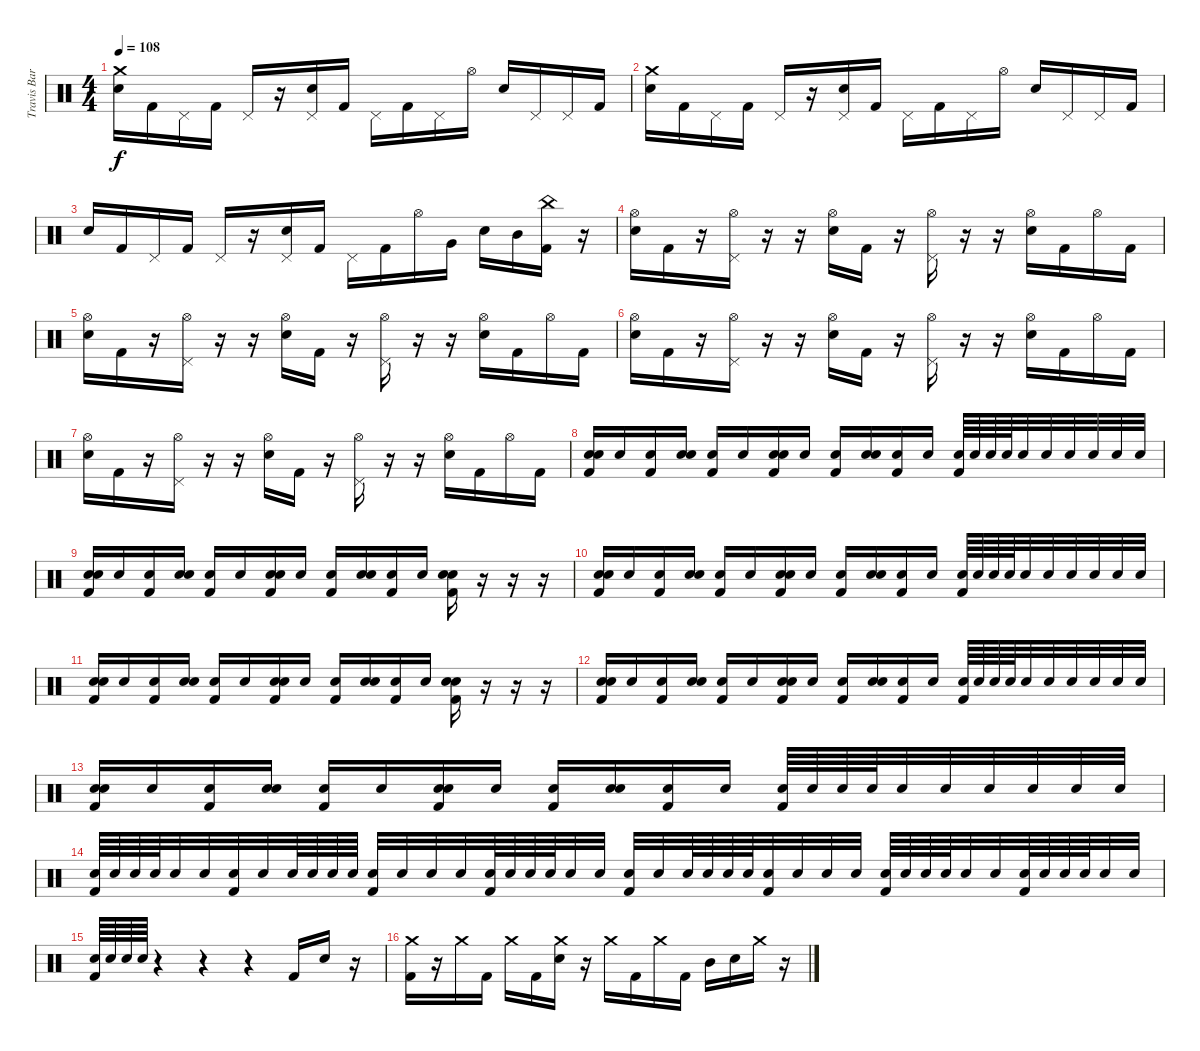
\track ("Travis Barker" "Travis Bar") {instrument percussion}
\staff {score}
\articulation defaults
\ts (4 4)
\tempo 108
\clef neutral
\ks c
("Crash medium (hit)" "Snare (hit) 2").16{dy f} "Kick (hit) 2".16 "Pedal Hi-Hat (hit)".16 "Kick (hit) 2".16 "Pedal Hi-Hat (hit)".16 r.16 ("Pedal Hi-Hat (hit)" "Snare (hit) 2").16 "Kick (hit) 2".16 "Pedal Hi-Hat (hit)".16 "Kick (hit) 2".16 "Pedal Hi-Hat (hit)".16 "Hi-Hat (open)".16 "Snare (hit) 2".16 "Pedal Hi-Hat (hit)".16 "Pedal Hi-Hat (hit)".16 "Kick (hit) 2".16 |
("Crash medium (hit)" "Snare (hit) 2").16 "Kick (hit) 2".16 "Pedal Hi-Hat (hit)".16 "Kick (hit) 2".16 "Pedal Hi-Hat (hit)".16 r.16 ("Pedal Hi-Hat (hit)" "Snare (hit) 2").16 "Kick (hit) 2".16 "Pedal Hi-Hat (hit)".16 "Kick (hit) 2".16 "Pedal Hi-Hat (hit)".16 "Hi-Hat (open)".16 "Snare (hit) 2".16 "Pedal Hi-Hat (hit)".16 "Pedal Hi-Hat (hit)".16 "Kick (hit) 2".16 |
"Snare (hit) 2".16 "Kick (hit) 2".16 "Pedal Hi-Hat (hit)".16 "Kick (hit) 2".16 "Pedal Hi-Hat (hit)".16 r.16 ("Pedal Hi-Hat (hit)" "Snare (hit) 2").16 "Kick (hit) 2".16 "Pedal Hi-Hat (hit)".16 "Kick (hit) 2".16 "Hi-Hat (open)".16 "Very Low Tom (hit)".16 "Snare (hit) 2".16 "Mid Tom (hit)".16 ("China (hit)" "Kick (hit) 2").16 r.16 |
("Hi-Hat (open)" "Snare (hit) 2").16 "Kick (hit) 2".16 r.16 ("Pedal Hi-Hat (hit)" "Hi-Hat (open)").16 r.16 r.16 ("Hi-Hat (open)" "Snare (hit) 2").16 "Kick (hit) 2".16 r.16 ("Pedal Hi-Hat (hit)" "Hi-Hat (open)").16 r.16 r.16 ("Hi-Hat (open)" "Snare (hit) 2").16 "Kick (hit) 2".16 "Hi-Hat (open)".16 "Kick (hit) 2".16 |
("Hi-Hat (open)" "Snare (hit) 2").16 "Kick (hit) 2".16 r.16 ("Pedal Hi-Hat (hit)" "Hi-Hat (open)").16 r.16 r.16 ("Hi-Hat (open)" "Snare (hit) 2").16 "Kick (hit) 2".16 r.16 ("Pedal Hi-Hat (hit)" "Hi-Hat (open)").16 r.16 r.16 ("Hi-Hat (open)" "Snare (hit) 2").16 "Kick (hit) 2".16 "Hi-Hat (open)".16 "Kick (hit) 2".16 |
("Hi-Hat (open)" "Snare (hit) 2").16 "Kick (hit) 2".16 r.16 ("Pedal Hi-Hat (hit)" "Hi-Hat (open)").16 r.16 r.16 ("Hi-Hat (open)" "Snare (hit) 2").16 "Kick (hit) 2".16 r.16 ("Pedal Hi-Hat (hit)" "Hi-Hat (open)").16 r.16 r.16 ("Hi-Hat (open)" "Snare (hit) 2").16 "Kick (hit) 2".16 "Hi-Hat (open)".16 "Kick (hit) 2".16 |
("Hi-Hat (open)" "Snare (hit) 2").16 "Kick (hit) 2".16 r.16 ("Pedal Hi-Hat (hit)" "Hi-Hat (open)").16 r.16 r.16 ("Hi-Hat (open)" "Snare (hit) 2").16 "Kick (hit) 2".16 r.16 ("Pedal Hi-Hat (hit)" "Hi-Hat (open)").16 r.16 r.16 ("Hi-Hat (open)" "Snare (hit) 2").16 "Kick (hit) 2".16 "Hi-Hat (open)".16 "Kick (hit) 2".16 |
("Electric Snare (hit)" "Snare (hit) 2" "Kick (hit) 2").16 "Snare (hit) 2".16 ("Snare (hit) 2" "Kick (hit) 2").16 ("Electric Snare (hit)" "Snare (hit) 2").16 ("Snare (hit) 2" "Kick (hit) 2").16 "Snare (hit) 2".16 ("Electric Snare (hit)" "Snare (hit) 2" "Kick (hit) 2").16 "Snare (hit) 2".16 ("Snare (hit) 2" "Kick (hit) 2").16 ("Electric Snare (hit)" "Snare (hit) 2").16 ("Snare (hit) 2" "Kick (hit) 2").16 "Snare (hit) 2".16 ("Snare (hit) 2" "Kick (hit) 2").64 "Snare (hit) 2".64 "Snare (hit) 2".64 "Snare (hit) 2".64 "Snare (hit) 2".32 "Snare (hit) 2".32 "Snare (hit) 2".32 "Snare (hit) 2".32 "Snare (hit) 2".32 "Snare (hit) 2".32 |
("Electric Snare (hit)" "Snare (hit) 2" "Kick (hit) 2").16 "Snare (hit) 2".16 ("Snare (hit) 2" "Kick (hit) 2").16 ("Electric Snare (hit)" "Snare (hit) 2").16 ("Snare (hit) 2" "Kick (hit) 2").16 "Snare (hit) 2".16 ("Electric Snare (hit)" "Snare (hit) 2" "Kick (hit) 2").16 "Snare (hit) 2".16 ("Snare (hit) 2" "Kick (hit) 2").16 ("Electric Snare (hit)" "Snare (hit) 2").16 ("Snare (hit) 2" "Kick (hit) 2").16 "Snare (hit) 2".16 ("Electric Snare (hit)" "Snare (hit) 2" "Kick (hit) 2").16 r.16 r.16 r.16 |
("Electric Snare (hit)" "Snare (hit) 2" "Kick (hit) 2").16 "Snare (hit) 2".16 ("Snare (hit) 2" "Kick (hit) 2").16 ("Electric Snare (hit)" "Snare (hit) 2").16 ("Snare (hit) 2" "Kick (hit) 2").16 "Snare (hit) 2".16 ("Electric Snare (hit)" "Snare (hit) 2" "Kick (hit) 2").16 "Snare (hit) 2".16 ("Snare (hit) 2" "Kick (hit) 2").16 ("Electric Snare (hit)" "Snare (hit) 2").16 ("Snare (hit) 2" "Kick (hit) 2").16 "Snare (hit) 2".16 ("Snare (hit) 2" "Kick (hit) 2").64 "Snare (hit) 2".64 "Snare (hit) 2".64 "Snare (hit) 2".64 "Snare (hit) 2".32 "Snare (hit) 2".32 "Snare (hit) 2".32 "Snare (hit) 2".32 "Snare (hit) 2".32 "Snare (hit) 2".32 |
("Electric Snare (hit)" "Snare (hit) 2" "Kick (hit) 2").16 "Snare (hit) 2".16 ("Snare (hit) 2" "Kick (hit) 2").16 ("Electric Snare (hit)" "Snare (hit) 2").16 ("Snare (hit) 2" "Kick (hit) 2").16 "Snare (hit) 2".16 ("Electric Snare (hit)" "Snare (hit) 2" "Kick (hit) 2").16 "Snare (hit) 2".16 ("Snare (hit) 2" "Kick (hit) 2").16 ("Electric Snare (hit)" "Snare (hit) 2").16 ("Snare (hit) 2" "Kick (hit) 2").16 "Snare (hit) 2".16 ("Electric Snare (hit)" "Snare (hit) 2" "Kick (hit) 2").16 r.16 r.16 r.16 |
("Electric Snare (hit)" "Snare (hit) 2" "Kick (hit) 2").16 "Snare (hit) 2".16 ("Snare (hit) 2" "Kick (hit) 2").16 ("Electric Snare (hit)" "Snare (hit) 2").16 ("Snare (hit) 2" "Kick (hit) 2").16 "Snare (hit) 2".16 ("Electric Snare (hit)" "Snare (hit) 2" "Kick (hit) 2").16 "Snare (hit) 2".16 ("Snare (hit) 2" "Kick (hit) 2").16 ("Electric Snare (hit)" "Snare (hit) 2").16 ("Snare (hit) 2" "Kick (hit) 2").16 "Snare (hit) 2".16 ("Snare (hit) 2" "Kick (hit) 2").64 "Snare (hit) 2".64 "Snare (hit) 2".64 "Snare (hit) 2".64 "Snare (hit) 2".32 "Snare (hit) 2".32 "Snare (hit) 2".32 "Snare (hit) 2".32 "Snare (hit) 2".32 "Snare (hit) 2".32 |
("Electric Snare (hit)" "Snare (hit) 2" "Kick (hit) 2").16 "Snare (hit) 2".16 ("Snare (hit) 2" "Kick (hit) 2").16 ("Electric Snare (hit)" "Snare (hit) 2").16 ("Snare (hit) 2" "Kick (hit) 2").16 "Snare (hit) 2".16 ("Electric Snare (hit)" "Snare (hit) 2" "Kick (hit) 2").16 "Snare (hit) 2".16 ("Snare (hit) 2" "Kick (hit) 2").16 ("Electric Snare (hit)" "Snare (hit) 2").16 ("Snare (hit) 2" "Kick (hit) 2").16 "Snare (hit) 2".16 ("Snare (hit) 2" "Kick (hit) 2").64 "Snare (hit) 2".64 "Snare (hit) 2".64 "Snare (hit) 2".64 "Snare (hit) 2".32 "Snare (hit) 2".32 "Snare (hit) 2".32 "Snare (hit) 2".32 "Snare (hit) 2".32 "Snare (hit) 2".32 |
("Snare (hit) 2" "Kick (hit) 2").64 "Snare (hit) 2".64 "Snare (hit) 2".64 "Snare (hit) 2".64 "Snare (hit) 2".32 "Snare (hit) 2".32 ("Snare (hit) 2" "Kick (hit) 2").32 "Snare (hit) 2".32 "Snare (hit) 2".64 "Snare (hit) 2".64 "Snare (hit) 2".64 "Snare (hit) 2".64 ("Snare (hit) 2" "Kick (hit) 2").32 "Snare (hit) 2".32 "Snare (hit) 2".32 "Snare (hit) 2".32 ("Snare (hit) 2" "Kick (hit) 2").64 "Snare (hit) 2".64 "Snare (hit) 2".64 "Snare (hit) 2".64 "Snare (hit) 2".32 "Snare (hit) 2".32 ("Snare (hit) 2" "Kick (hit) 2").32 "Snare (hit) 2".32 "Snare (hit) 2".64 "Snare (hit) 2".64 "Snare (hit) 2".64 "Snare (hit) 2".64 ("Snare (hit) 2" "Kick (hit) 2").32 "Snare (hit) 2".32 "Snare (hit) 2".32 "Snare (hit) 2".32 ("Snare (hit) 2" "Kick (hit) 2").64 "Snare (hit) 2".64 "Snare (hit) 2".64 "Snare (hit) 2".64 "Snare (hit) 2".32 "Snare (hit) 2".32 ("Snare (hit) 2" "Kick (hit) 2").64 "Snare (hit) 2".64 "Snare (hit) 2".64 "Snare (hit) 2".64 "Snare (hit) 2".32 "Snare (hit) 2".32 |
("Snare (hit) 2" "Kick (hit) 2").64 "Snare (hit) 2".64 "Snare (hit) 2".64 "Snare (hit) 2".64 r.4 r.4 r.4 "Kick (hit) 2".16 "Snare (hit) 2".16 r.16 |
("Crash medium (hit)" "Kick (hit) 2").16 r.16 "Crash medium (hit)".16 "Kick (hit) 2".16 "Crash medium (hit)".16 "Kick (hit) 2".16 ("Crash medium (hit)" "Snare (hit) 2").16 r.16 "Crash medium (hit)".16 "Kick (hit) 2".16 "Crash medium (hit)".16 "Kick (hit) 2".16 "Mid Tom (hit)".16 "Snare (hit) 2".16 "Crash medium (hit)".16 r.16
